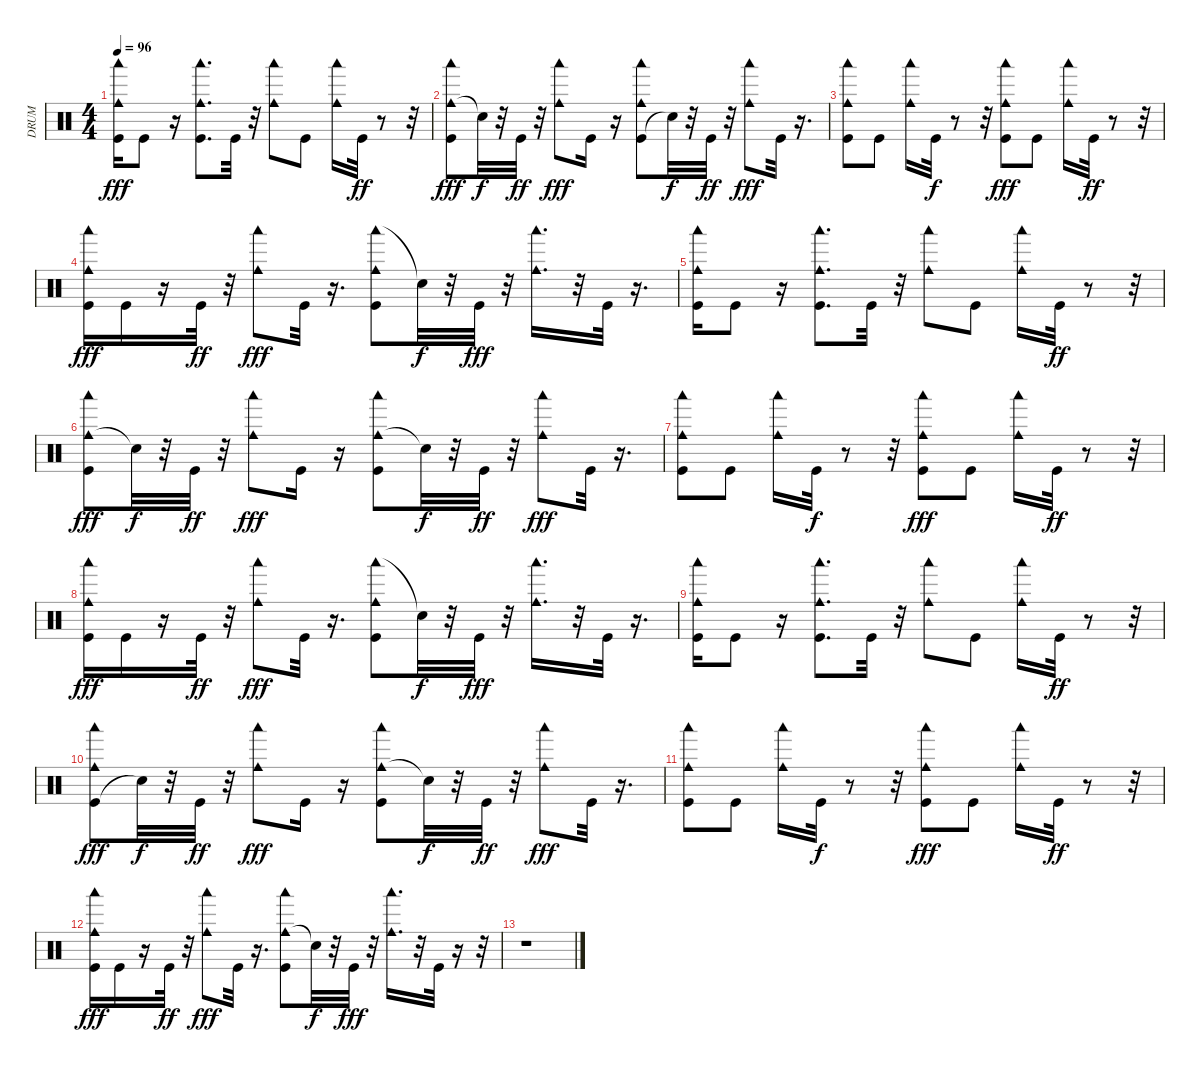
\track ("DRUM" "DRUM") {instrument percussion}
\staff {score}
\articulation defaults
\ts (4 4)
\tempo 96
\clef neutral
\ks c
("Kick (hit)" "Cowbell medium (hit)" "Woodblock low (hit)").16{dy fff} "Kick (hit)".8 r.16 ("Cowbell medium (hit)" "Kick (hit)" "Woodblock low (hit)").8{d} "Kick (hit)".32 r.32 ("Cowbell medium (hit)" "Woodblock low (hit)").8 "Kick (hit)".8 ("Cowbell medium (hit)" "Woodblock low (hit)").16 "Kick (hit)".32{dy ff} r.8 r.32 |
("Cowbell medium (hit)" "Woodblock low (hit)" "Kick (hit)").8{dy fff} "Snare (hit)"{t}.32{dy f} r.32 "Kick (hit)".32{dy ff} r.32 ("Woodblock low (hit)" "Cowbell medium (hit)").8{dy fff} "Kick (hit)".16 r.16 ("Kick (hit)" "Woodblock low (hit)" "Cowbell medium (hit)").8 "Snare (hit)"{t}.32{dy f} r.32 "Kick (hit)".32{dy ff} r.32 ("Woodblock low (hit)" "Cowbell medium (hit)").8{dy fff} "Kick (hit)".32 r.16{d} |
("Kick (hit)" "Woodblock low (hit)" "Cowbell medium (hit)").8 "Kick (hit)".8 ("Woodblock low (hit)" "Cowbell medium (hit)").16 "Kick (hit)".32{dy f} r.8 r.32 ("Cowbell medium (hit)" "Kick (hit)" "Woodblock low (hit)").8{dy fff} "Kick (hit)".8 ("Woodblock low (hit)" "Cowbell medium (hit)").16 "Kick (hit)".32{dy ff} r.8 r.32 |
("Cowbell medium (hit)" "Woodblock low (hit)" "Kick (hit)").16{dy fff} "Kick (hit)".16 r.16 "Kick (hit)".32{dy ff} r.32 ("Cowbell medium (hit)" "Woodblock low (hit)").8{dy fff} "Kick (hit)".32 r.16{d} ("Woodblock low (hit)" "Cowbell medium (hit)" "Kick (hit)").8 "Snare (hit)"{t}.32{dy f} r.32 "Kick (hit)".32{dy fff} r.32 ("Woodblock low (hit)" "Cowbell medium (hit)").16{d} r.32 "Kick (hit)".32 r.16{d} |
("Kick (hit)" "Cowbell medium (hit)" "Woodblock low (hit)").16 "Kick (hit)".8 r.16 ("Cowbell medium (hit)" "Woodblock low (hit)" "Kick (hit)").8{d} "Kick (hit)".32 r.32 ("Cowbell medium (hit)" "Woodblock low (hit)").8 "Kick (hit)".8 ("Cowbell medium (hit)" "Woodblock low (hit)").16 "Kick (hit)".32{dy ff} r.8 r.32 |
("Cowbell medium (hit)" "Woodblock low (hit)" "Kick (hit)").8{dy fff} "Snare (hit)"{t}.32{dy f} r.32 "Kick (hit)".32{dy ff} r.32 ("Cowbell medium (hit)" "Woodblock low (hit)").8{dy fff} "Kick (hit)".16 r.16 ("Cowbell medium (hit)" "Woodblock low (hit)" "Kick (hit)").8 "Snare (hit)"{t}.32{dy f} r.32 "Kick (hit)".32{dy ff} r.32 ("Woodblock low (hit)" "Cowbell medium (hit)").8{dy fff} "Kick (hit)".32 r.16{d} |
("Kick (hit)" "Cowbell medium (hit)" "Woodblock low (hit)").8 "Kick (hit)".8 ("Woodblock low (hit)" "Cowbell medium (hit)").16 "Kick (hit)".32{dy f} r.8 r.32 ("Woodblock low (hit)" "Kick (hit)" "Cowbell medium (hit)").8{dy fff} "Kick (hit)".8 ("Cowbell medium (hit)" "Woodblock low (hit)").16 "Kick (hit)".32{dy ff} r.8 r.32 |
("Woodblock low (hit)" "Kick (hit)" "Cowbell medium (hit)").16{dy fff volume 12} "Kick (hit)".16{volume 12} r.16 "Kick (hit)".32{dy ff volume 12} r.32 ("Cowbell medium (hit)" "Woodblock low (hit)").8{dy fff volume 12} "Kick (hit)".32{volume 12} r.16{d} ("Woodblock low (hit)" "Kick (hit)" "Cowbell medium (hit)").8{volume 11} "Snare (hit)"{t}.32{dy f} r.32 "Kick (hit)".32{dy fff volume 11} r.32 ("Cowbell medium (hit)" "Woodblock low (hit)").16{d volume 11} r.32 "Kick (hit)".32{volume 10} r.16{d} |
("Kick (hit)" "Cowbell medium (hit)" "Woodblock low (hit)").16{volume 10} "Kick (hit)".8{volume 10} r.16 ("Cowbell medium (hit)" "Woodblock low (hit)" "Kick (hit)").8{d volume 10} "Kick (hit)".32{volume 9} r.32 ("Cowbell medium (hit)" "Woodblock low (hit)").8{volume 9} "Kick (hit)".8{volume 9} ("Woodblock low (hit)" "Cowbell medium (hit)").16{volume 8} "Kick (hit)".32{dy ff volume 8} r.8 r.32 |
("Kick (hit)" "Woodblock low (hit)" "Cowbell medium (hit)").8{dy fff volume 8} "Snare (hit)"{t}.32{dy f} r.32 "Kick (hit)".32{dy ff volume 7} r.32 ("Woodblock low (hit)" "Cowbell medium (hit)").8{dy fff volume 7} "Kick (hit)".16{volume 7} r.16 ("Cowbell medium (hit)" "Woodblock low (hit)" "Kick (hit)").8{volume 6} "Snare (hit)"{t}.32{dy f} r.32 "Kick (hit)".32{dy ff volume 6} r.32 ("Cowbell medium (hit)" "Woodblock low (hit)").8{dy fff volume 6} "Kick (hit)".32{volume 6} r.16{d} |
("Kick (hit)" "Woodblock low (hit)" "Cowbell medium (hit)").8{volume 5} "Kick (hit)".8{volume 5} ("Woodblock low (hit)" "Cowbell medium (hit)").16{volume 5} "Kick (hit)".32{dy f volume 4} r.8 r.32 ("Cowbell medium (hit)" "Kick (hit)" "Woodblock low (hit)").8{dy fff volume 4} "Kick (hit)".8{volume 4} ("Woodblock low (hit)" "Cowbell medium (hit)").16{volume 3} "Kick (hit)".32{dy ff volume 3} r.8 r.32 |
("Cowbell medium (hit)" "Woodblock low (hit)" "Kick (hit)").16{dy fff volume 3} "Kick (hit)".16{volume 3} r.16 "Kick (hit)".32{dy ff volume 2} r.32 ("Woodblock low (hit)" "Cowbell medium (hit)").8{dy fff volume 2} "Kick (hit)".32{volume 2} r.16{d} ("Cowbell medium (hit)" "Kick (hit)" "Woodblock low (hit)").8{volume 2} "Snare (hit)"{t}.32{dy f} r.32 "Kick (hit)".32{dy fff volume 1} r.32 ("Woodblock low (hit)" "Cowbell medium (hit)").16{d volume 1} r.32 "Kick (hit)".32{volume 1} r.16 r.32 |
r.1
